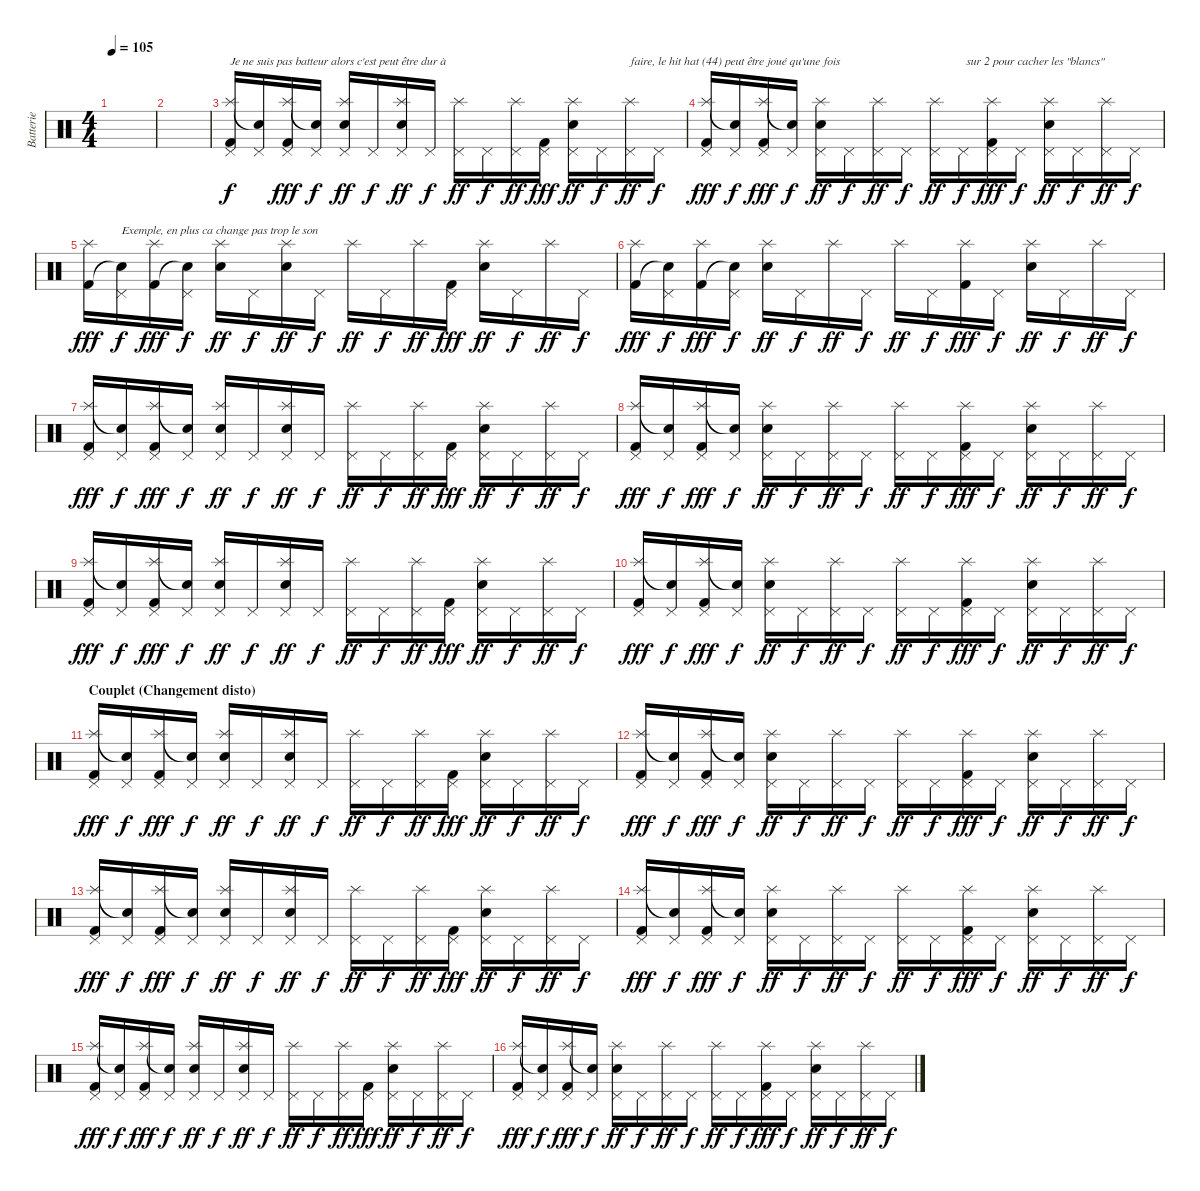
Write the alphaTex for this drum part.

\track ("Batterie" "Batterie") {instrument percussion}
\staff {score}
\articulation defaults
\ts (4 4)
\tempo 105
\clef neutral
\ks c
|
|
("Pedal Hi-Hat (hit)" "Splash (hit)" "Kick (hit) 2").16{txt "Je ne suis pas batteur alors c'est peut être dur à"} ("Pedal Hi-Hat (hit)" "Snare (hit)"{t}).16{dy f} ("Pedal Hi-Hat (hit)" "Splash (hit)" "Kick (hit) 2").16{dy fff} ("Pedal Hi-Hat (hit)" "Snare (hit)"{t}).16{dy f} ("Pedal Hi-Hat (hit)" "Snare (hit) 2" "Splash (hit)").16{dy ff} "Pedal Hi-Hat (hit)".16{dy f} ("Pedal Hi-Hat (hit)" "Snare (hit) 2" "Splash (hit)").16{dy ff} "Pedal Hi-Hat (hit)".16{dy f} ("Pedal Hi-Hat (hit)" "Splash (hit)").16{dy ff} "Pedal Hi-Hat (hit)".16{dy f} ("Pedal Hi-Hat (hit)" "Splash (hit)").16{dy ff} ("Pedal Hi-Hat (hit)" "Kick (hit) 2").16{dy fff} ("Pedal Hi-Hat (hit)" "Snare (hit) 2" "Splash (hit)").16{dy ff} "Pedal Hi-Hat (hit)".16{dy f} ("Pedal Hi-Hat (hit)" "Splash (hit)").16{txt "faire, le hit hat (44) peut être joué qu'une fois " dy ff} "Pedal Hi-Hat (hit)".16{dy f} |
("Pedal Hi-Hat (hit)" "Splash (hit)" "Kick (hit) 2").16{dy fff} ("Pedal Hi-Hat (hit)" "Snare (hit)"{t}).16{dy f} ("Pedal Hi-Hat (hit)" "Splash (hit)" "Kick (hit) 2").16{dy fff} ("Pedal Hi-Hat (hit)" "Snare (hit)"{t}).16{dy f} ("Pedal Hi-Hat (hit)" "Snare (hit) 2" "Splash (hit)").16{dy ff} "Pedal Hi-Hat (hit)".16{dy f} ("Pedal Hi-Hat (hit)" "Splash (hit)").16{dy ff} "Pedal Hi-Hat (hit)".16{dy f} ("Pedal Hi-Hat (hit)" "Splash (hit)").16{dy ff} "Pedal Hi-Hat (hit)".16{txt " sur 2 pour cacher les \"blancs\"" dy f} ("Pedal Hi-Hat (hit)" "Splash (hit)" "Kick (hit) 2").16{dy fff} "Pedal Hi-Hat (hit)".16{dy f} ("Pedal Hi-Hat (hit)" "Snare (hit) 2" "Splash (hit)").16{dy ff} "Pedal Hi-Hat (hit)".16{dy f} ("Pedal Hi-Hat (hit)" "Splash (hit)").16{dy ff} "Pedal Hi-Hat (hit)".16{dy f} |
("Splash (hit)" "Kick (hit) 2").16{dy fff} ("Pedal Hi-Hat (hit)" "Snare (hit)"{t}).16{txt "Exemple, en plus ca change pas trop le son" dy f} ("Splash (hit)" "Kick (hit) 2").16{dy fff} ("Pedal Hi-Hat (hit)" "Snare (hit)"{t}).16{dy f} ("Snare (hit) 2" "Splash (hit)").16{dy ff} "Pedal Hi-Hat (hit)".16{dy f} ("Snare (hit) 2" "Splash (hit)").16{dy ff} "Pedal Hi-Hat (hit)".16{dy f} "Splash (hit)".16{dy ff} "Pedal Hi-Hat (hit)".16{dy f} "Splash (hit)".16{dy ff} ("Pedal Hi-Hat (hit)" "Kick (hit) 2").16{dy fff} ("Snare (hit) 2" "Splash (hit)").16{dy ff} "Pedal Hi-Hat (hit)".16{dy f} "Splash (hit)".16{dy ff} "Pedal Hi-Hat (hit)".16{dy f} |
("Splash (hit)" "Kick (hit) 2").16{dy fff} ("Pedal Hi-Hat (hit)" "Snare (hit)"{t}).16{dy f} ("Splash (hit)" "Kick (hit) 2").16{dy fff} ("Pedal Hi-Hat (hit)" "Snare (hit)"{t}).16{dy f} ("Snare (hit) 2" "Splash (hit)").16{dy ff} "Pedal Hi-Hat (hit)".16{dy f} "Splash (hit)".16{dy ff} "Pedal Hi-Hat (hit)".16{dy f} "Splash (hit)".16{dy ff} "Pedal Hi-Hat (hit)".16{dy f} ("Splash (hit)" "Kick (hit) 2").16{dy fff} "Pedal Hi-Hat (hit)".16{dy f} ("Snare (hit) 2" "Splash (hit)").16{dy ff} "Pedal Hi-Hat (hit)".16{dy f} "Splash (hit)".16{dy ff} "Pedal Hi-Hat (hit)".16{dy f} |
("Pedal Hi-Hat (hit)" "Splash (hit)" "Kick (hit) 2").16{dy fff} ("Pedal Hi-Hat (hit)" "Snare (hit)"{t}).16{dy f} ("Pedal Hi-Hat (hit)" "Splash (hit)" "Kick (hit) 2").16{dy fff} ("Pedal Hi-Hat (hit)" "Snare (hit)"{t}).16{dy f} ("Pedal Hi-Hat (hit)" "Snare (hit) 2" "Splash (hit)").16{dy ff} "Pedal Hi-Hat (hit)".16{dy f} ("Pedal Hi-Hat (hit)" "Snare (hit) 2" "Splash (hit)").16{dy ff} "Pedal Hi-Hat (hit)".16{dy f} ("Pedal Hi-Hat (hit)" "Splash (hit)").16{dy ff} "Pedal Hi-Hat (hit)".16{dy f} ("Pedal Hi-Hat (hit)" "Splash (hit)").16{dy ff} ("Pedal Hi-Hat (hit)" "Kick (hit) 2").16{dy fff} ("Pedal Hi-Hat (hit)" "Snare (hit) 2" "Splash (hit)").16{dy ff} "Pedal Hi-Hat (hit)".16{dy f} ("Pedal Hi-Hat (hit)" "Splash (hit)").16{dy ff} "Pedal Hi-Hat (hit)".16{dy f} |
("Pedal Hi-Hat (hit)" "Splash (hit)" "Kick (hit) 2").16{dy fff} ("Pedal Hi-Hat (hit)" "Snare (hit)"{t}).16{dy f} ("Pedal Hi-Hat (hit)" "Splash (hit)" "Kick (hit) 2").16{dy fff} ("Pedal Hi-Hat (hit)" "Snare (hit)"{t}).16{dy f} ("Pedal Hi-Hat (hit)" "Snare (hit) 2" "Splash (hit)").16{dy ff} "Pedal Hi-Hat (hit)".16{dy f} ("Pedal Hi-Hat (hit)" "Splash (hit)").16{dy ff} "Pedal Hi-Hat (hit)".16{dy f} ("Pedal Hi-Hat (hit)" "Splash (hit)").16{dy ff} "Pedal Hi-Hat (hit)".16{dy f} ("Pedal Hi-Hat (hit)" "Splash (hit)" "Kick (hit) 2").16{dy fff} "Pedal Hi-Hat (hit)".16{dy f} ("Pedal Hi-Hat (hit)" "Snare (hit) 2" "Splash (hit)").16{dy ff} "Pedal Hi-Hat (hit)".16{dy f} ("Pedal Hi-Hat (hit)" "Splash (hit)").16{dy ff} "Pedal Hi-Hat (hit)".16{dy f} |
("Pedal Hi-Hat (hit)" "Splash (hit)" "Kick (hit) 2").16{dy fff} ("Pedal Hi-Hat (hit)" "Snare (hit)"{t}).16{dy f} ("Pedal Hi-Hat (hit)" "Splash (hit)" "Kick (hit) 2").16{dy fff} ("Pedal Hi-Hat (hit)" "Snare (hit)"{t}).16{dy f} ("Pedal Hi-Hat (hit)" "Snare (hit) 2" "Splash (hit)").16{dy ff} "Pedal Hi-Hat (hit)".16{dy f} ("Pedal Hi-Hat (hit)" "Snare (hit) 2" "Splash (hit)").16{dy ff} "Pedal Hi-Hat (hit)".16{dy f} ("Pedal Hi-Hat (hit)" "Splash (hit)").16{dy ff} "Pedal Hi-Hat (hit)".16{dy f} ("Pedal Hi-Hat (hit)" "Splash (hit)").16{dy ff} ("Pedal Hi-Hat (hit)" "Kick (hit) 2").16{dy fff} ("Pedal Hi-Hat (hit)" "Snare (hit) 2" "Splash (hit)").16{dy ff} "Pedal Hi-Hat (hit)".16{dy f} ("Pedal Hi-Hat (hit)" "Splash (hit)").16{dy ff} "Pedal Hi-Hat (hit)".16{dy f} |
("Pedal Hi-Hat (hit)" "Splash (hit)" "Kick (hit) 2").16{dy fff} ("Pedal Hi-Hat (hit)" "Snare (hit)"{t}).16{dy f} ("Pedal Hi-Hat (hit)" "Splash (hit)" "Kick (hit) 2").16{dy fff} ("Pedal Hi-Hat (hit)" "Snare (hit)"{t}).16{dy f} ("Pedal Hi-Hat (hit)" "Snare (hit) 2" "Splash (hit)").16{dy ff} "Pedal Hi-Hat (hit)".16{dy f} ("Pedal Hi-Hat (hit)" "Splash (hit)").16{dy ff} "Pedal Hi-Hat (hit)".16{dy f} ("Pedal Hi-Hat (hit)" "Splash (hit)").16{dy ff} "Pedal Hi-Hat (hit)".16{dy f} ("Pedal Hi-Hat (hit)" "Splash (hit)" "Kick (hit) 2").16{dy fff} "Pedal Hi-Hat (hit)".16{dy f} ("Pedal Hi-Hat (hit)" "Snare (hit) 2" "Splash (hit)").16{dy ff} "Pedal Hi-Hat (hit)".16{dy f} ("Pedal Hi-Hat (hit)" "Splash (hit)").16{dy ff} "Pedal Hi-Hat (hit)".16{dy f} |
\section ("" "Couplet (Changement disto)")
("Pedal Hi-Hat (hit)" "Splash (hit)" "Kick (hit) 2").16{dy fff} ("Pedal Hi-Hat (hit)" "Snare (hit)"{t}).16{dy f} ("Pedal Hi-Hat (hit)" "Splash (hit)" "Kick (hit) 2").16{dy fff} ("Pedal Hi-Hat (hit)" "Snare (hit)"{t}).16{dy f} ("Pedal Hi-Hat (hit)" "Snare (hit) 2" "Splash (hit)").16{dy ff} "Pedal Hi-Hat (hit)".16{dy f} ("Pedal Hi-Hat (hit)" "Snare (hit) 2" "Splash (hit)").16{dy ff} "Pedal Hi-Hat (hit)".16{dy f} ("Pedal Hi-Hat (hit)" "Splash (hit)").16{dy ff} "Pedal Hi-Hat (hit)".16{dy f} ("Pedal Hi-Hat (hit)" "Splash (hit)").16{dy ff} ("Pedal Hi-Hat (hit)" "Kick (hit) 2").16{dy fff} ("Pedal Hi-Hat (hit)" "Snare (hit) 2" "Splash (hit)").16{dy ff} "Pedal Hi-Hat (hit)".16{dy f} ("Pedal Hi-Hat (hit)" "Splash (hit)").16{dy ff} "Pedal Hi-Hat (hit)".16{dy f} |
("Pedal Hi-Hat (hit)" "Splash (hit)" "Kick (hit) 2").16{dy fff} ("Pedal Hi-Hat (hit)" "Snare (hit)"{t}).16{dy f} ("Pedal Hi-Hat (hit)" "Splash (hit)" "Kick (hit) 2").16{dy fff} ("Pedal Hi-Hat (hit)" "Snare (hit)"{t}).16{dy f} ("Pedal Hi-Hat (hit)" "Snare (hit) 2" "Splash (hit)").16{dy ff} "Pedal Hi-Hat (hit)".16{dy f} ("Pedal Hi-Hat (hit)" "Splash (hit)").16{dy ff} "Pedal Hi-Hat (hit)".16{dy f} ("Pedal Hi-Hat (hit)" "Splash (hit)").16{dy ff} "Pedal Hi-Hat (hit)".16{dy f} ("Pedal Hi-Hat (hit)" "Splash (hit)" "Kick (hit) 2").16{dy fff} "Pedal Hi-Hat (hit)".16{dy f} ("Pedal Hi-Hat (hit)" "Snare (hit) 2" "Splash (hit)").16{dy ff} "Pedal Hi-Hat (hit)".16{dy f} ("Pedal Hi-Hat (hit)" "Splash (hit)").16{dy ff} "Pedal Hi-Hat (hit)".16{dy f} |
("Pedal Hi-Hat (hit)" "Splash (hit)" "Kick (hit) 2").16{dy fff} ("Pedal Hi-Hat (hit)" "Snare (hit)"{t}).16{dy f} ("Pedal Hi-Hat (hit)" "Splash (hit)" "Kick (hit) 2").16{dy fff} ("Pedal Hi-Hat (hit)" "Snare (hit)"{t}).16{dy f} ("Pedal Hi-Hat (hit)" "Snare (hit) 2" "Splash (hit)").16{dy ff} "Pedal Hi-Hat (hit)".16{dy f} ("Pedal Hi-Hat (hit)" "Snare (hit) 2" "Splash (hit)").16{dy ff} "Pedal Hi-Hat (hit)".16{dy f} ("Pedal Hi-Hat (hit)" "Splash (hit)").16{dy ff} "Pedal Hi-Hat (hit)".16{dy f} ("Pedal Hi-Hat (hit)" "Splash (hit)").16{dy ff} ("Pedal Hi-Hat (hit)" "Kick (hit) 2").16{dy fff} ("Pedal Hi-Hat (hit)" "Snare (hit) 2" "Splash (hit)").16{dy ff} "Pedal Hi-Hat (hit)".16{dy f} ("Pedal Hi-Hat (hit)" "Splash (hit)").16{dy ff} "Pedal Hi-Hat (hit)".16{dy f} |
("Pedal Hi-Hat (hit)" "Splash (hit)" "Kick (hit) 2").16{dy fff} ("Pedal Hi-Hat (hit)" "Snare (hit)"{t}).16{dy f} ("Pedal Hi-Hat (hit)" "Splash (hit)" "Kick (hit) 2").16{dy fff} ("Pedal Hi-Hat (hit)" "Snare (hit)"{t}).16{dy f} ("Pedal Hi-Hat (hit)" "Snare (hit) 2" "Splash (hit)").16{dy ff} "Pedal Hi-Hat (hit)".16{dy f} ("Pedal Hi-Hat (hit)" "Splash (hit)").16{dy ff} "Pedal Hi-Hat (hit)".16{dy f} ("Pedal Hi-Hat (hit)" "Splash (hit)").16{dy ff} "Pedal Hi-Hat (hit)".16{dy f} ("Pedal Hi-Hat (hit)" "Splash (hit)" "Kick (hit) 2").16{dy fff} "Pedal Hi-Hat (hit)".16{dy f} ("Pedal Hi-Hat (hit)" "Snare (hit) 2" "Splash (hit)").16{dy ff} "Pedal Hi-Hat (hit)".16{dy f} ("Pedal Hi-Hat (hit)" "Splash (hit)").16{dy ff} "Pedal Hi-Hat (hit)".16{dy f} |
("Pedal Hi-Hat (hit)" "Splash (hit)" "Kick (hit) 2").16{dy fff} ("Pedal Hi-Hat (hit)" "Snare (hit)"{t}).16{dy f} ("Pedal Hi-Hat (hit)" "Splash (hit)" "Kick (hit) 2").16{dy fff} ("Pedal Hi-Hat (hit)" "Snare (hit)"{t}).16{dy f} ("Pedal Hi-Hat (hit)" "Snare (hit) 2" "Splash (hit)").16{dy ff} "Pedal Hi-Hat (hit)".16{dy f} ("Pedal Hi-Hat (hit)" "Snare (hit) 2" "Splash (hit)").16{dy ff} "Pedal Hi-Hat (hit)".16{dy f} ("Pedal Hi-Hat (hit)" "Splash (hit)").16{dy ff} "Pedal Hi-Hat (hit)".16{dy f} ("Pedal Hi-Hat (hit)" "Splash (hit)").16{dy ff} ("Pedal Hi-Hat (hit)" "Kick (hit) 2").16{dy fff} ("Pedal Hi-Hat (hit)" "Snare (hit) 2" "Splash (hit)").16{dy ff} "Pedal Hi-Hat (hit)".16{dy f} ("Pedal Hi-Hat (hit)" "Splash (hit)").16{dy ff} "Pedal Hi-Hat (hit)".16{dy f} |
("Pedal Hi-Hat (hit)" "Splash (hit)" "Kick (hit) 2").16{dy fff} ("Pedal Hi-Hat (hit)" "Snare (hit)"{t}).16{dy f} ("Pedal Hi-Hat (hit)" "Splash (hit)" "Kick (hit) 2").16{dy fff} ("Pedal Hi-Hat (hit)" "Snare (hit)"{t}).16{dy f} ("Pedal Hi-Hat (hit)" "Snare (hit) 2" "Splash (hit)").16{dy ff} "Pedal Hi-Hat (hit)".16{dy f} ("Pedal Hi-Hat (hit)" "Splash (hit)").16{dy ff} "Pedal Hi-Hat (hit)".16{dy f} ("Pedal Hi-Hat (hit)" "Splash (hit)").16{dy ff} "Pedal Hi-Hat (hit)".16{dy f} ("Pedal Hi-Hat (hit)" "Splash (hit)" "Kick (hit) 2").16{dy fff} "Pedal Hi-Hat (hit)".16{dy f} ("Pedal Hi-Hat (hit)" "Snare (hit) 2" "Splash (hit)").16{dy ff} "Pedal Hi-Hat (hit)".16{dy f} ("Pedal Hi-Hat (hit)" "Splash (hit)").16{dy ff} "Pedal Hi-Hat (hit)".16{dy f}
